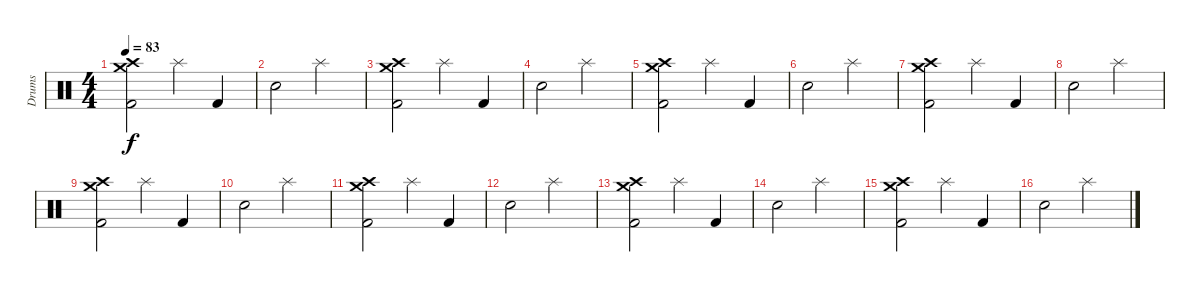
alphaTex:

\track ("Drums" "Drums") {instrument percussion}
\staff {score}
\articulation defaults
\ts (4 4)
\tempo 83
\clef neutral
\ks c
("Crash high (hit)" "Crash medium (hit)" "Kick (hit) 2").2{dy f} "Splash (hit)".4 "Kick (hit) 2".4 |
"Snare (hit) 2".2 "Splash (hit)".2 |
("Crash high (hit)" "Crash medium (hit)" "Kick (hit) 2").2 "Splash (hit)".4 "Kick (hit) 2".4 |
"Snare (hit) 2".2 "Splash (hit)".2 |
("Crash high (hit)" "Crash medium (hit)" "Kick (hit) 2").2 "Splash (hit)".4 "Kick (hit) 2".4 |
"Snare (hit) 2".2 "Splash (hit)".2 |
("Crash high (hit)" "Crash medium (hit)" "Kick (hit) 2").2 "Splash (hit)".4 "Kick (hit) 2".4 |
"Snare (hit) 2".2 "Splash (hit)".2 |
("Crash high (hit)" "Crash medium (hit)" "Kick (hit) 2").2 "Splash (hit)".4 "Kick (hit) 2".4 |
"Snare (hit) 2".2 "Splash (hit)".2 |
("Crash high (hit)" "Crash medium (hit)" "Kick (hit) 2").2 "Splash (hit)".4 "Kick (hit) 2".4 |
"Snare (hit) 2".2 "Splash (hit)".2 |
("Crash high (hit)" "Crash medium (hit)" "Kick (hit) 2").2 "Splash (hit)".4 "Kick (hit) 2".4 |
"Snare (hit) 2".2 "Splash (hit)".2 |
("Crash high (hit)" "Crash medium (hit)" "Kick (hit) 2").2 "Splash (hit)".4 "Kick (hit) 2".4 |
"Snare (hit) 2".2 "Splash (hit)".2
